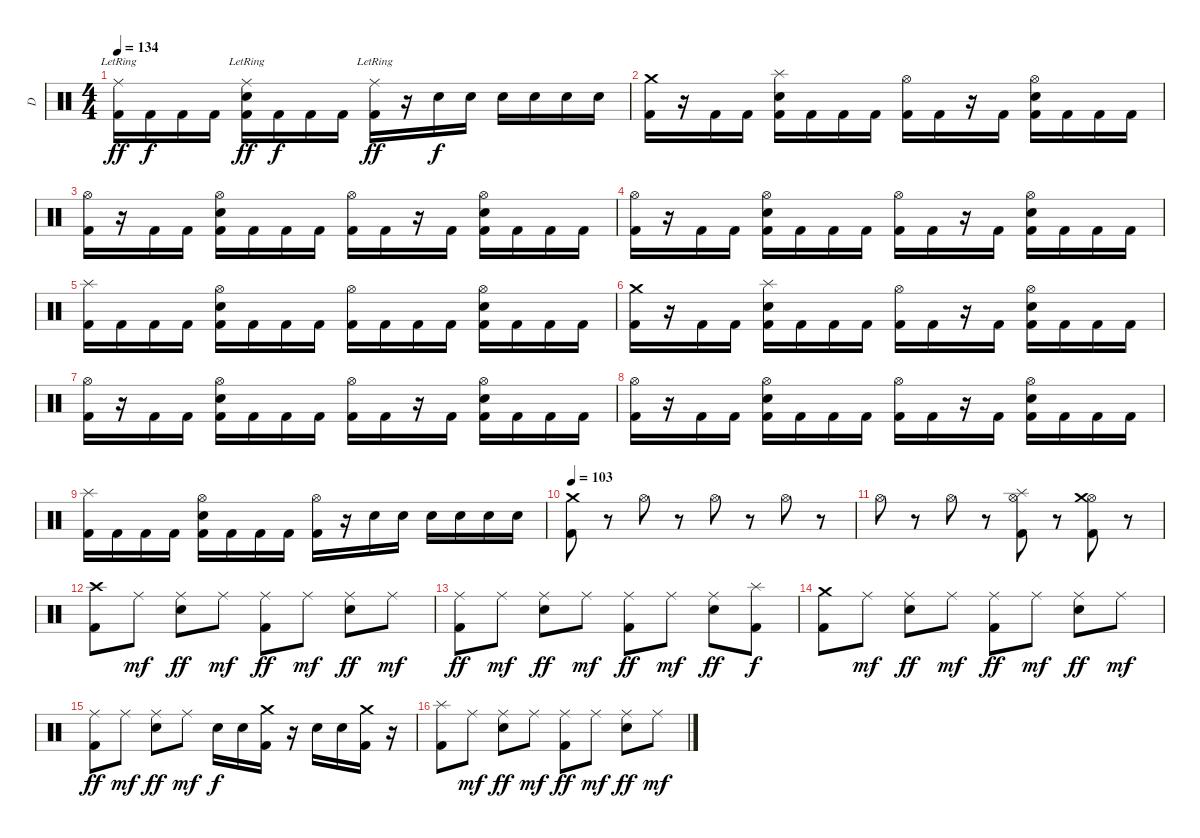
\track ("D" "D") {instrument percussion}
\staff {score}
\articulation defaults
\ts (4 4)
\tempo 134
\clef neutral
\ks c
("Ride (middle)"{lr} "Kick (hit) 2").16{dy ff} "Kick (hit) 2".16{dy f} "Kick (hit) 2".16 "Kick (hit) 2".16 ("Ride (middle)"{lr} "Snare (hit) 2" "Kick (hit) 2").16{dy ff} "Kick (hit) 2".16{dy f} "Kick (hit) 2".16 "Kick (hit) 2".16 ("Ride (middle)"{lr} "Kick (hit) 2").16{dy ff} r.16 "Snare (hit) 2".16{dy f} "Snare (hit) 2".16 "Snare (hit) 2".16 "Snare (hit) 2".16 "Snare (hit) 2".16 "Snare (hit) 2".16 |
("Crash medium (hit)" "Kick (hit) 2").16 r.16 "Kick (hit) 2".16 "Kick (hit) 2".16 ("Splash (hit)" "Snare (hit) 2" "Kick (hit) 2").16 "Kick (hit) 2".16 "Kick (hit) 2".16 "Kick (hit) 2".16 ("Hi-Hat (open)" "Kick (hit) 2").16 "Kick (hit) 2".16 r.16 "Kick (hit) 2".16 ("Hi-Hat (open)" "Snare (hit) 2" "Kick (hit) 2").16 "Kick (hit) 2".16 "Kick (hit) 2".16 "Kick (hit) 2".16 |
("Hi-Hat (open)" "Kick (hit) 2").16 r.16 "Kick (hit) 2".16 "Kick (hit) 2".16 ("Hi-Hat (open)" "Snare (hit) 2" "Kick (hit) 2").16 "Kick (hit) 2".16 "Kick (hit) 2".16 "Kick (hit) 2".16 ("Hi-Hat (open)" "Kick (hit) 2").16 "Kick (hit) 2".16 r.16 "Kick (hit) 2".16 ("Hi-Hat (open)" "Snare (hit) 2" "Kick (hit) 2").16 "Kick (hit) 2".16 "Kick (hit) 2".16 "Kick (hit) 2".16 |
("Hi-Hat (open)" "Kick (hit) 2").16 r.16 "Kick (hit) 2".16 "Kick (hit) 2".16 ("Hi-Hat (open)" "Snare (hit) 2" "Kick (hit) 2").16 "Kick (hit) 2".16 "Kick (hit) 2".16 "Kick (hit) 2".16 ("Hi-Hat (open)" "Kick (hit) 2").16 "Kick (hit) 2".16 r.16 "Kick (hit) 2".16 ("Hi-Hat (open)" "Snare (hit) 2" "Kick (hit) 2").16 "Kick (hit) 2".16 "Kick (hit) 2".16 "Kick (hit) 2".16 |
("Splash (hit)" "Kick (hit) 2").16 "Kick (hit) 2".16 "Kick (hit) 2".16 "Kick (hit) 2".16 ("Hi-Hat (open)" "Snare (hit) 2" "Kick (hit) 2").16 "Kick (hit) 2".16 "Kick (hit) 2".16 "Kick (hit) 2".16 ("Hi-Hat (open)" "Kick (hit) 2").16 "Kick (hit) 2".16 "Kick (hit) 2".16 "Kick (hit) 2".16 ("Hi-Hat (open)" "Snare (hit) 2" "Kick (hit) 2").16 "Kick (hit) 2".16 "Kick (hit) 2".16 "Kick (hit) 2".16 |
("Crash medium (hit)" "Kick (hit) 2").16 r.16 "Kick (hit) 2".16 "Kick (hit) 2".16 ("Splash (hit)" "Snare (hit) 2" "Kick (hit) 2").16 "Kick (hit) 2".16 "Kick (hit) 2".16 "Kick (hit) 2".16 ("Hi-Hat (open)" "Kick (hit) 2").16 "Kick (hit) 2".16 r.16 "Kick (hit) 2".16 ("Hi-Hat (open)" "Snare (hit) 2" "Kick (hit) 2").16 "Kick (hit) 2".16 "Kick (hit) 2".16 "Kick (hit) 2".16 |
("Hi-Hat (open)" "Kick (hit) 2").16 r.16 "Kick (hit) 2".16 "Kick (hit) 2".16 ("Hi-Hat (open)" "Snare (hit) 2" "Kick (hit) 2").16 "Kick (hit) 2".16 "Kick (hit) 2".16 "Kick (hit) 2".16 ("Hi-Hat (open)" "Kick (hit) 2").16 "Kick (hit) 2".16 r.16 "Kick (hit) 2".16 ("Hi-Hat (open)" "Snare (hit) 2" "Kick (hit) 2").16 "Kick (hit) 2".16 "Kick (hit) 2".16 "Kick (hit) 2".16 |
("Hi-Hat (open)" "Kick (hit) 2").16 r.16 "Kick (hit) 2".16 "Kick (hit) 2".16 ("Hi-Hat (open)" "Snare (hit) 2" "Kick (hit) 2").16 "Kick (hit) 2".16 "Kick (hit) 2".16 "Kick (hit) 2".16 ("Hi-Hat (open)" "Kick (hit) 2").16 "Kick (hit) 2".16 r.16 "Kick (hit) 2".16 ("Hi-Hat (open)" "Snare (hit) 2" "Kick (hit) 2").16 "Kick (hit) 2".16 "Kick (hit) 2".16 "Kick (hit) 2".16 |
("Splash (hit)" "Kick (hit) 2").16 "Kick (hit) 2".16 "Kick (hit) 2".16 "Kick (hit) 2".16 ("Hi-Hat (open)" "Snare (hit) 2" "Kick (hit) 2").16 "Kick (hit) 2".16 "Kick (hit) 2".16 "Kick (hit) 2".16 ("Hi-Hat (open)" "Kick (hit) 2").16 r.16 "Snare (hit) 2".16 "Snare (hit) 2".16 "Snare (hit) 2".16 "Snare (hit) 2".16 "Snare (hit) 2".16 "Snare (hit) 2".16 |
\tempo 103
("Crash medium (hit)" "Kick (hit) 2").8 r.8 "Hi-Hat (open)".8 r.8 "Hi-Hat (open)".8 r.8 "Hi-Hat (open)".8 r.8 |
"Hi-Hat (open)".8 r.8 "Hi-Hat (open)".8 r.8 ("Hi-Hat (open)" "Splash (hit)" "Kick (hit) 2").8 r.8 ("Hi-Hat (open)" "Crash medium (hit)" "Kick (hit) 2").8 r.8 |
("Crash high (hit)" "Kick (hit) 2").8 "Ride (middle)".8{dy mf} ("Ride (middle)" "Snare (hit) 2").8{dy ff} "Ride (middle)".8{dy mf} ("Ride (middle)" "Kick (hit) 2").8{dy ff} "Ride (middle)".8{dy mf} ("Ride (middle)" "Snare (hit) 2").8{dy ff} "Ride (middle)".8{dy mf} |
("Ride (middle)" "Kick (hit) 2").8{dy ff} "Ride (middle)".8{dy mf} ("Ride (middle)" "Snare (hit) 2").8{dy ff} "Ride (middle)".8{dy mf} ("Ride (middle)" "Kick (hit) 2").8{dy ff} "Ride (middle)".8{dy mf} ("Ride (middle)" "Snare (hit) 2").8{dy ff} ("Splash (hit)" "Kick (hit) 2").8{dy f} |
("Crash medium (hit)" "Kick (hit) 2").8 "Ride (middle)".8{dy mf} ("Ride (middle)" "Snare (hit) 2").8{dy ff} "Ride (middle)".8{dy mf} ("Ride (middle)" "Kick (hit) 2").8{dy ff} "Ride (middle)".8{dy mf} ("Ride (middle)" "Snare (hit) 2").8{dy ff} "Ride (middle)".8{dy mf} |
("Ride (middle)" "Kick (hit) 2").8{dy ff} "Ride (middle)".8{dy mf} ("Ride (middle)" "Snare (hit) 2").8{dy ff} "Ride (middle)".8{dy mf} "Snare (hit) 2".16{dy f} "Snare (hit) 2".16 ("Crash medium (hit)" "Kick (hit) 2").16 r.16 "Snare (hit) 2".16 "Snare (hit) 2".16 ("Crash medium (hit)" "Kick (hit) 2").16 r.16 |
("Splash (hit)" "Kick (hit) 2").8 "Ride (middle)".8{dy mf} ("Ride (middle)" "Snare (hit) 2").8{dy ff} "Ride (middle)".8{dy mf} ("Ride (middle)" "Kick (hit) 2").8{dy ff} "Ride (middle)".8{dy mf} ("Ride (middle)" "Snare (hit) 2").8{dy ff} "Ride (middle)".8{dy mf}
